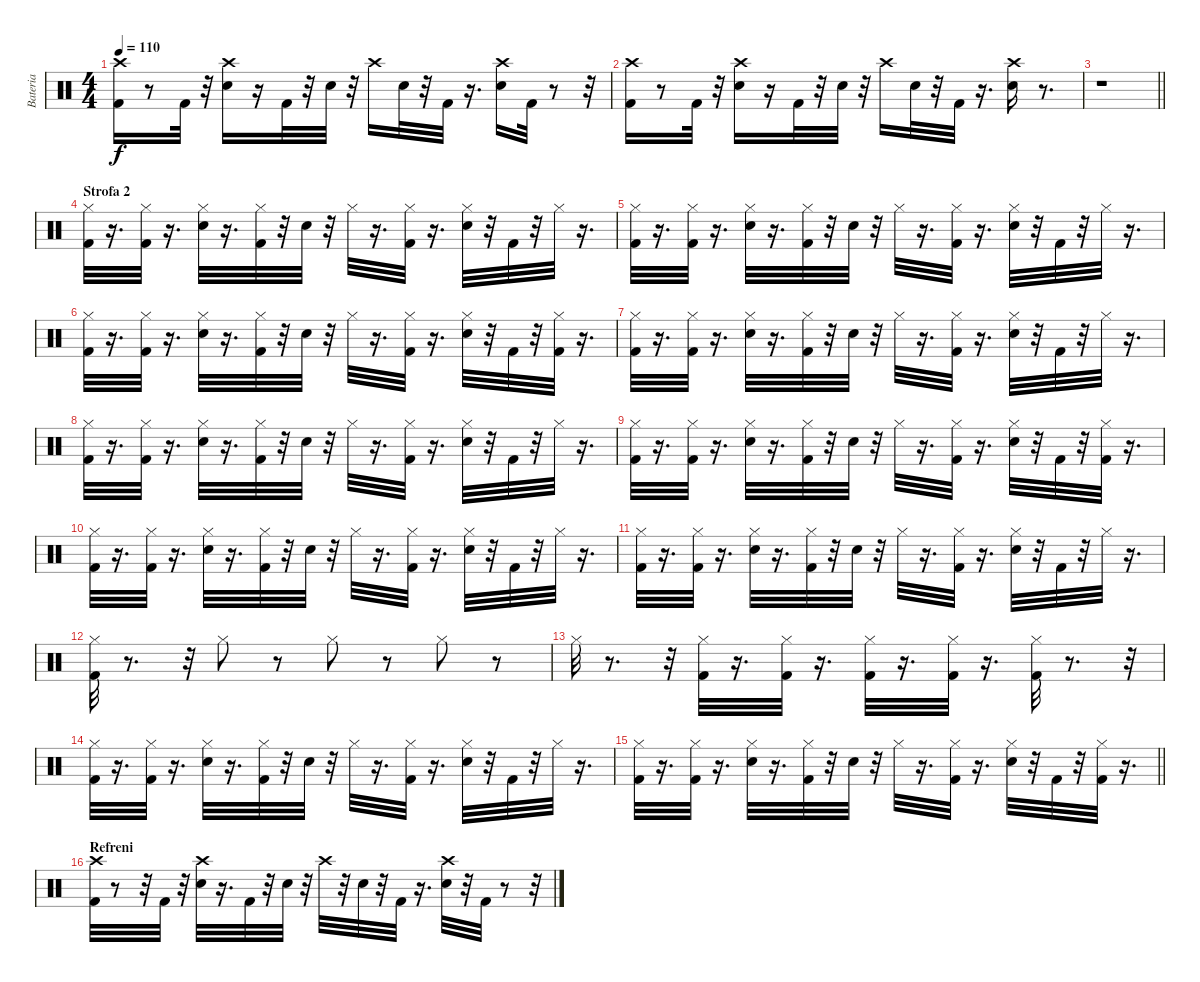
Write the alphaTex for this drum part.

\track ("Bateria" "Bateria") {instrument percussion}
\staff {score}
\articulation defaults
\ts (4 4)
\tempo 110
\clef neutral
\ks c
("Kick (hit) 2" "Crash high (hit)").16{dy f} r.8 "Kick (hit) 2".32 r.32 ("Snare (hit) 2" "Crash high (hit)").16 r.16 "Kick (hit) 2".32 r.32 "Snare (hit) 2".32 r.32 "Crash high (hit)".16 "Snare (hit) 2".32 r.32 "Kick (hit) 2".32 r.16{d} ("Snare (hit) 2" "Crash high (hit)").16 "Kick (hit) 2".32 r.8 r.32 |
("Kick (hit) 2" "Crash high (hit)").16 r.8 "Kick (hit) 2".32 r.32 ("Snare (hit) 2" "Crash high (hit)").16 r.16 "Kick (hit) 2".32 r.32 "Snare (hit) 2".32 r.32 "Crash high (hit)".16 "Snare (hit) 2".32 r.32 "Kick (hit) 2".32 r.16{d} ("Snare (hit) 2" "Crash high (hit)").16 r.8{d} |
\barLineRight lightlight
r.1 |
\section ("" "Strofa 2")
("Hi-Hat (closed)" "Kick (hit) 2").32 r.16{d} ("Hi-Hat (closed)" "Kick (hit) 2").32 r.16{d} ("Hi-Hat (closed)" "Snare (hit) 2").32 r.16{d} ("Hi-Hat (closed)" "Kick (hit) 2").32 r.32 "Snare (hit) 2".32 r.32 "Hi-Hat (closed)".32 r.16{d} ("Hi-Hat (closed)" "Kick (hit) 2").32 r.16{d} ("Hi-Hat (closed)" "Snare (hit) 2").32 r.32 "Kick (hit) 2".32 r.32 "Hi-Hat (closed)".32 r.16{d} |
("Kick (hit) 2" "Hi-Hat (closed)").32 r.16{d} ("Kick (hit) 2" "Hi-Hat (closed)").32 r.16{d} ("Snare (hit) 2" "Hi-Hat (closed)").32 r.16{d} ("Kick (hit) 2" "Hi-Hat (closed)").32 r.32 "Snare (hit) 2".32 r.32 "Hi-Hat (closed)".32 r.16{d} ("Kick (hit) 2" "Hi-Hat (closed)").32 r.16{d} ("Snare (hit) 2" "Hi-Hat (closed)").32 r.32 "Kick (hit) 2".32 r.32 "Hi-Hat (closed)".32 r.16{d} |
("Kick (hit) 2" "Hi-Hat (closed)").32 r.16{d} ("Kick (hit) 2" "Hi-Hat (closed)").32 r.16{d} ("Snare (hit) 2" "Hi-Hat (closed)").32 r.16{d} ("Kick (hit) 2" "Hi-Hat (closed)").32 r.32 "Snare (hit) 2".32 r.32 "Hi-Hat (closed)".32 r.16{d} ("Kick (hit) 2" "Hi-Hat (closed)").32 r.16{d} ("Snare (hit) 2" "Hi-Hat (closed)").32 r.32 "Kick (hit) 2".32 r.32 ("Kick (hit) 2" "Hi-Hat (closed)").32 r.16{d} |
("Kick (hit) 2" "Hi-Hat (closed)").32 r.16{d} ("Kick (hit) 2" "Hi-Hat (closed)").32 r.16{d} ("Snare (hit) 2" "Hi-Hat (closed)").32 r.16{d} ("Kick (hit) 2" "Hi-Hat (closed)").32 r.32 "Snare (hit) 2".32 r.32 "Hi-Hat (closed)".32 r.16{d} ("Kick (hit) 2" "Hi-Hat (closed)").32 r.16{d} ("Snare (hit) 2" "Hi-Hat (closed)").32 r.32 "Kick (hit) 2".32 r.32 "Hi-Hat (closed)".32 r.16{d} |
("Kick (hit) 2" "Hi-Hat (closed)").32 r.16{d} ("Kick (hit) 2" "Hi-Hat (closed)").32 r.16{d} ("Snare (hit) 2" "Hi-Hat (closed)").32 r.16{d} ("Kick (hit) 2" "Hi-Hat (closed)").32 r.32 "Snare (hit) 2".32 r.32 "Hi-Hat (closed)".32 r.16{d} ("Kick (hit) 2" "Hi-Hat (closed)").32 r.16{d} ("Snare (hit) 2" "Hi-Hat (closed)").32 r.32 "Kick (hit) 2".32 r.32 "Hi-Hat (closed)".32 r.16{d} |
("Kick (hit) 2" "Hi-Hat (closed)").32 r.16{d} ("Kick (hit) 2" "Hi-Hat (closed)").32 r.16{d} ("Snare (hit) 2" "Hi-Hat (closed)").32 r.16{d} ("Kick (hit) 2" "Hi-Hat (closed)").32 r.32 "Snare (hit) 2".32 r.32 "Hi-Hat (closed)".32 r.16{d} ("Kick (hit) 2" "Hi-Hat (closed)").32 r.16{d} ("Snare (hit) 2" "Hi-Hat (closed)").32 r.32 "Kick (hit) 2".32 r.32 ("Kick (hit) 2" "Hi-Hat (closed)").32 r.16{d} |
("Kick (hit) 2" "Hi-Hat (closed)").32 r.16{d} ("Kick (hit) 2" "Hi-Hat (closed)").32 r.16{d} ("Snare (hit) 2" "Hi-Hat (closed)").32 r.16{d} ("Kick (hit) 2" "Hi-Hat (closed)").32 r.32 "Snare (hit) 2".32 r.32 "Hi-Hat (closed)".32 r.16{d} ("Kick (hit) 2" "Hi-Hat (closed)").32 r.16{d} ("Snare (hit) 2" "Hi-Hat (closed)").32 r.32 "Kick (hit) 2".32 r.32 "Hi-Hat (closed)".32 r.16{d} |
("Kick (hit) 2" "Hi-Hat (closed)").32 r.16{d} ("Kick (hit) 2" "Hi-Hat (closed)").32 r.16{d} ("Snare (hit) 2" "Hi-Hat (closed)").32 r.16{d} ("Kick (hit) 2" "Hi-Hat (closed)").32 r.32 "Snare (hit) 2".32 r.32 "Hi-Hat (closed)".32 r.16{d} ("Kick (hit) 2" "Hi-Hat (closed)").32 r.16{d} ("Snare (hit) 2" "Hi-Hat (closed)").32 r.32 "Kick (hit) 2".32 r.32 "Hi-Hat (closed)".32 r.16{d} |
("Kick (hit) 2" "Hi-Hat (closed)").32 r.8{d} r.32 "Hi-Hat (closed)".8 r.8 "Hi-Hat (closed)".8 r.8 "Hi-Hat (closed)".8 r.8 |
"Hi-Hat (closed)".32 r.8{d} r.32 ("Hi-Hat (closed)" "Kick (hit) 2").32 r.16{d} ("Hi-Hat (closed)" "Kick (hit) 2").32 r.16{d} ("Hi-Hat (closed)" "Kick (hit) 2").32 r.16{d} ("Hi-Hat (closed)" "Kick (hit) 2").32 r.16{d} ("Hi-Hat (closed)" "Kick (hit) 2").32 r.8{d} r.32 |
("Hi-Hat (closed)" "Kick (hit) 2").32 r.16{d} ("Hi-Hat (closed)" "Kick (hit) 2").32 r.16{d} ("Hi-Hat (closed)" "Snare (hit) 2").32 r.16{d} ("Hi-Hat (closed)" "Kick (hit) 2").32 r.32 "Snare (hit) 2".32 r.32 "Hi-Hat (closed)".32 r.16{d} ("Hi-Hat (closed)" "Kick (hit) 2").32 r.16{d} ("Hi-Hat (closed)" "Snare (hit) 2").32 r.32 "Kick (hit) 2".32 r.32 "Hi-Hat (closed)".32 r.16{d} |
\barLineRight lightlight
("Kick (hit) 2" "Hi-Hat (closed)").32 r.16{d} ("Kick (hit) 2" "Hi-Hat (closed)").32 r.16{d} ("Snare (hit) 2" "Hi-Hat (closed)").32 r.16{d} ("Kick (hit) 2" "Hi-Hat (closed)").32 r.32 "Snare (hit) 2".32 r.32 "Hi-Hat (closed)".32 r.16{d} ("Kick (hit) 2" "Hi-Hat (closed)").32 r.16{d} ("Snare (hit) 2" "Hi-Hat (closed)").32 r.32 "Kick (hit) 2".32 r.32 ("Kick (hit) 2" "Hi-Hat (closed)").32 r.16{d} |
\section ("" "Refreni")
("Kick (hit) 2" "Crash high (hit)").32 r.8 r.32 "Kick (hit) 2".32 r.32 ("Snare (hit) 2" "Crash high (hit)").32 r.16{d} "Kick (hit) 2".32 r.32 "Snare (hit) 2".32 r.32 "Crash high (hit)".32 r.32 "Snare (hit) 2".32 r.32 "Kick (hit) 2".32 r.16{d} ("Snare (hit) 2" "Crash high (hit)").32 r.32 "Kick (hit) 2".32 r.8 r.32
